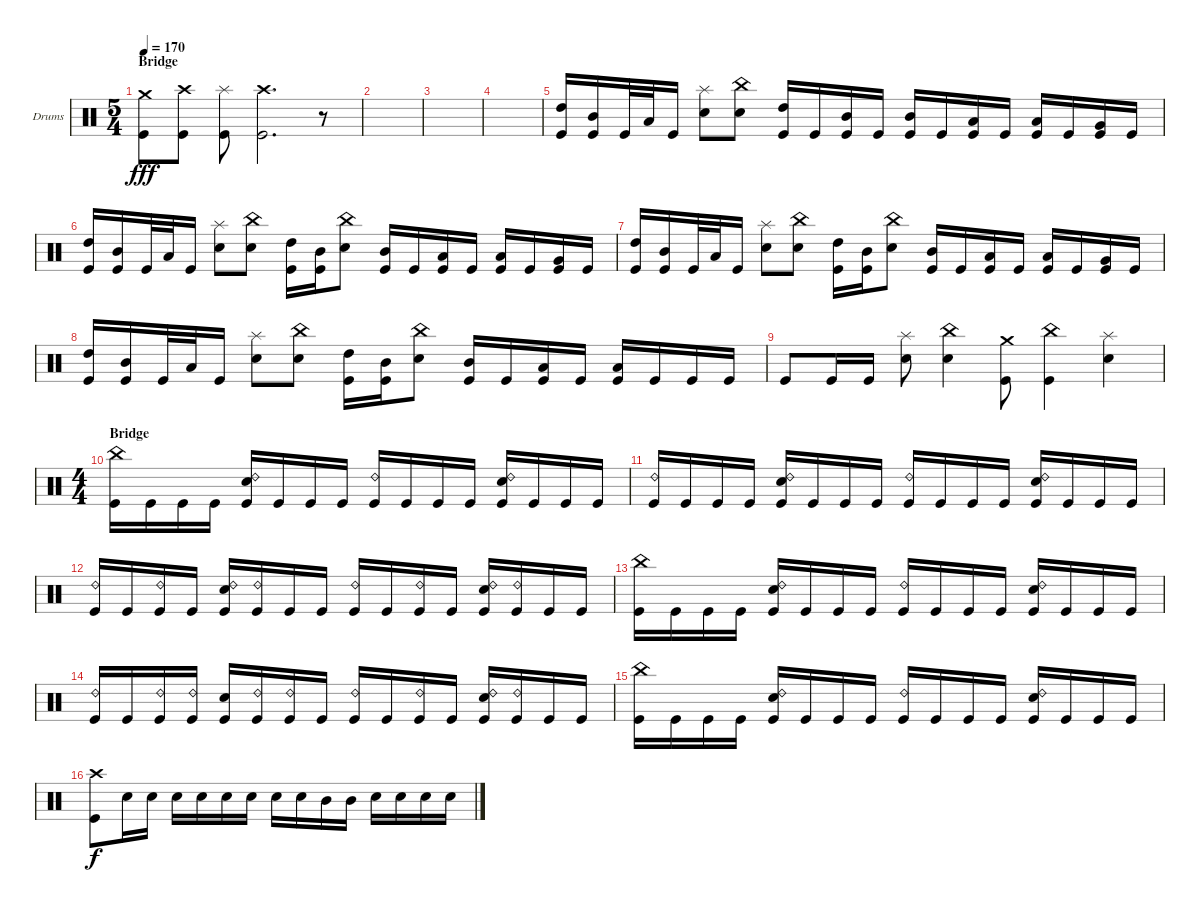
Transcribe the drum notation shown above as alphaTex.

\defaultSystemsLayout 4
\bracketExtendMode groupsimilarinstruments
\firstSystemTrackNameOrientation horizontal
\otherSystemsTrackNameOrientation horizontal
\track ("Chris Adler" "Drums") {instrument percussion}
\staff {score}
\articulation defaults
\ts (5 4)
\section ("" "Bridge")
\tempo 170
\clef neutral
\ks c
("Kick (hit)" "Crash medium (hit)").8{dy fff} ("Kick (hit)" "Crash high (hit)").8 ("Kick (hit)" "Splash (hit)").8 ("Kick (hit)" "Crash high (hit)").2{d} r.8 |
|
|
|
("Kick (hit)" "High Tom (hit)").16 ("Kick (hit)" "Mid Tom (hit)").16 "Kick (hit)".32 "Low Tom (hit)".32 "Kick (hit)".16 ("Snare (hit) 2" "Splash (hit)").8 ("Snare (hit) 2" "China (hit)").8 ("Kick (hit)" "High Tom (hit)").16 "Kick (hit)".16 ("Kick (hit)" "Mid Tom (hit)").16 "Kick (hit)".16 ("Kick (hit)" "Mid Tom (hit)").16 "Kick (hit)".16 ("Kick (hit)" "Low Tom (hit)").16 "Kick (hit)".16 ("Kick (hit)" "Low Tom (hit)").16 "Kick (hit)".16 ("Kick (hit)" "Very Low Tom (hit)").16 "Kick (hit)".16 |
("Kick (hit)" "High Tom (hit)").16 ("Kick (hit)" "Mid Tom (hit)").16 "Kick (hit)".32 "Low Tom (hit)".32 "Kick (hit)".16 ("Snare (hit) 2" "Splash (hit)").8 ("Snare (hit) 2" "China (hit)").8 ("Kick (hit)" "High Tom (hit)").16 ("Kick (hit)" "Mid Tom (hit)").16 ("Snare (hit) 2" "China (hit)").8 ("Kick (hit)" "Mid Tom (hit)").16 "Kick (hit)".16 ("Kick (hit)" "Low Tom (hit)").16 "Kick (hit)".16 ("Kick (hit)" "Low Tom (hit)").16 "Kick (hit)".16 ("Kick (hit)" "Very Low Tom (hit)").16 "Kick (hit)".16 |
("Kick (hit)" "High Tom (hit)").16 ("Kick (hit)" "Mid Tom (hit)").16 "Kick (hit)".32 "Low Tom (hit)".32 "Kick (hit)".16 ("Snare (hit) 2" "Splash (hit)").8 ("Snare (hit) 2" "China (hit)").8 ("Kick (hit)" "High Tom (hit)").16 ("Kick (hit)" "Mid Tom (hit)").16 ("Snare (hit) 2" "China (hit)").8 ("Kick (hit)" "Mid Tom (hit)").16 "Kick (hit)".16 ("Kick (hit)" "Low Tom (hit)").16 "Kick (hit)".16 ("Kick (hit)" "Low Tom (hit)").16 "Kick (hit)".16 ("Kick (hit)" "Very Low Tom (hit)").16 "Kick (hit)".16 |
("Kick (hit)" "High Tom (hit)").16 ("Kick (hit)" "Mid Tom (hit)").16 "Kick (hit)".32 "Low Tom (hit)".32 "Kick (hit)".16 ("Snare (hit) 2" "Splash (hit)").8 ("Snare (hit) 2" "China (hit)").8 ("Kick (hit)" "High Tom (hit)").16 ("Kick (hit)" "Mid Tom (hit)").16 ("Snare (hit) 2" "China (hit)").8 ("Kick (hit)" "Mid Tom (hit)").16 "Kick (hit)".16 ("Kick (hit)" "Low Tom (hit)").16 "Kick (hit)".16 ("Kick (hit)" "Low Tom (hit)").16 "Kick (hit)".16 "Kick (hit)".16 "Kick (hit)".16 |
"Kick (hit)".8 "Kick (hit)".16 "Kick (hit)".16 ("Snare (hit) 2" "Splash (hit)").8 ("Snare (hit) 2" "China (hit)").4 ("Kick (hit)" "Crash medium (hit)").8 ("Kick (hit)" "China (hit)").4 ("Snare (hit) 2" "Splash (hit)").4 |
\ts (4 4)
\section ("" "Bridge")
("Kick (hit)" "China (hit)").16 "Kick (hit)".16 "Kick (hit)".16 "Kick (hit)".16 ("Kick (hit)" "Snare (hit) 2" "Ride (bell) 2").16 "Kick (hit)".16 "Kick (hit)".16 "Kick (hit)".16 ("Kick (hit)" "Ride (bell) 2").16 "Kick (hit)".16 "Kick (hit)".16 "Kick (hit)".16 ("Kick (hit)" "Snare (hit) 2" "Ride (bell) 2").16 "Kick (hit)".16 "Kick (hit)".16 "Kick (hit)".16 |
("Kick (hit)" "Ride (bell) 2").16 "Kick (hit)".16 "Kick (hit)".16 "Kick (hit)".16 ("Kick (hit)" "Snare (hit) 2" "Ride (bell) 2").16 "Kick (hit)".16 "Kick (hit)".16 "Kick (hit)".16 ("Kick (hit)" "Ride (bell) 2").16 "Kick (hit)".16 "Kick (hit)".16 "Kick (hit)".16 ("Kick (hit)" "Snare (hit) 2" "Ride (bell) 2").16 "Kick (hit)".16 "Kick (hit)".16 "Kick (hit)".16 |
("Kick (hit)" "Ride (bell) 2").16 "Kick (hit)".16 ("Kick (hit)" "Ride (bell) 2").16 "Kick (hit)".16 ("Kick (hit)" "Snare (hit) 2" "Ride (bell) 2").16 ("Kick (hit)" "Ride (bell) 2").16 "Kick (hit)".16 "Kick (hit)".16 ("Kick (hit)" "Ride (bell) 2").16 "Kick (hit)".16 ("Kick (hit)" "Ride (bell) 2").16 "Kick (hit)".16 ("Kick (hit)" "Snare (hit) 2" "Ride (bell) 2").16 ("Kick (hit)" "Ride (bell) 2").16 "Kick (hit)".16 "Kick (hit)".16 |
("Kick (hit)" "China (hit)").16 "Kick (hit)".16 "Kick (hit)".16 "Kick (hit)".16 ("Kick (hit)" "Snare (hit) 2" "Ride (bell) 2").16 "Kick (hit)".16 "Kick (hit)".16 "Kick (hit)".16 ("Kick (hit)" "Ride (bell) 2").16 "Kick (hit)".16 "Kick (hit)".16 "Kick (hit)".16 ("Kick (hit)" "Snare (hit) 2" "Ride (bell) 2").16 "Kick (hit)".16 "Kick (hit)".16 "Kick (hit)".16 |
("Kick (hit)" "Ride (bell) 2").16 "Kick (hit)".16 ("Kick (hit)" "Ride (bell) 2").16 ("Kick (hit)" "Ride (bell) 2").16 ("Kick (hit)" "Snare (hit) 2").16 ("Kick (hit)" "Ride (bell) 2").16 ("Kick (hit)" "Ride (bell) 2").16 "Kick (hit)".16 ("Kick (hit)" "Ride (bell) 2").16 "Kick (hit)".16 ("Kick (hit)" "Ride (bell) 2").16 "Kick (hit)".16 ("Kick (hit)" "Snare (hit) 2" "Ride (bell) 2").16 ("Kick (hit)" "Ride (bell) 2").16 "Kick (hit)".16 "Kick (hit)".16 |
("Kick (hit)" "China (hit)").16 "Kick (hit)".16 "Kick (hit)".16 "Kick (hit)".16 ("Kick (hit)" "Snare (hit) 2" "Ride (bell) 2").16 "Kick (hit)".16 "Kick (hit)".16 "Kick (hit)".16 ("Kick (hit)" "Ride (bell) 2").16 "Kick (hit)".16 "Kick (hit)".16 "Kick (hit)".16 ("Kick (hit)" "Snare (hit) 2" "Ride (bell) 2").16 "Kick (hit)".16 "Kick (hit)".16 "Kick (hit)".16 |
("Kick (hit)" "Crash high (hit)").8{dy f} "Snare (hit) 2".16 "Snare (hit) 2".16 "Snare (hit) 2".16 "Snare (hit) 2".16 "Snare (hit) 2".16 "Snare (hit) 2".16 "Snare (hit) 2".16 "Snare (hit) 2".16 "Mid Tom (hit)".16 "Mid Tom (hit)".16 "Snare (hit) 2".16 "Snare (hit) 2".16 "Snare (hit) 2".16 "Snare (hit) 2".16
